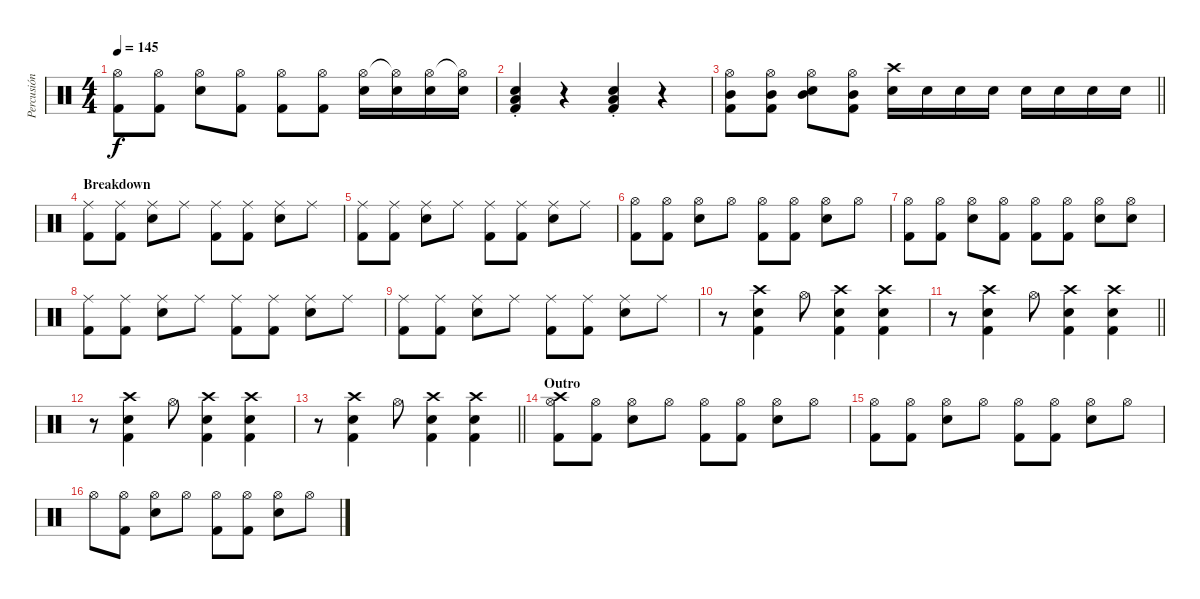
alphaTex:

\track ("Percusión" "Percusión") {instrument percussion}
\staff {score}
\articulation defaults
\ts (4 4)
\tempo 145
\clef neutral
\ks c
("Hi-Hat (open)" "Kick (hit) 2").8{dy f} ("Hi-Hat (open)" "Kick (hit) 2").8 ("Hi-Hat (open)" "Snare (hit) 2").8 ("Hi-Hat (open)" "Kick (hit) 2").8 ("Hi-Hat (open)" "Kick (hit) 2").8 ("Hi-Hat (open)" "Kick (hit) 2").8 ("Hi-Hat (open)" "Snare (hit) 2").16 ("Hi-Hat (open)"{t} "Snare (hit) 2").16 ("Hi-Hat (open)" "Snare (hit) 2").16 ("Hi-Hat (open)"{t} "Snare (hit) 2").16 |
("Low Tom (hit)"{st} "Snare (hit) 2" "Kick (hit) 2").4 r.4 ("Low Tom (hit)"{st} "Snare (hit) 2" "Kick (hit) 2").4 r.4 |
\barLineRight lightlight
("Hi-Hat (open)" "Mid Tom (hit)" "Kick (hit) 2").8 ("Hi-Hat (open)" "Mid Tom (hit)" "Kick (hit) 2").8 ("Hi-Hat (open)" "Mid Tom (hit)" "Snare (hit) 2").8 ("Hi-Hat (open)" "Mid Tom (hit)" "Kick (hit) 2").8 ("Crash high (hit)" "Snare (hit) 2").16 "Snare (hit) 2".16 "Snare (hit) 2".16 "Snare (hit) 2".16 "Snare (hit) 2".16 "Snare (hit) 2".16 "Snare (hit) 2".16 "Snare (hit) 2".16 |
\section ("" "Breakdown")
("Ride (middle)" "Kick (hit) 2").8 ("Ride (middle)" "Kick (hit) 2").8 ("Ride (middle)" "Snare (hit) 2").8 "Ride (middle)".8 ("Ride (middle)" "Kick (hit) 2").8 ("Ride (middle)" "Kick (hit) 2").8 ("Ride (middle)" "Snare (hit) 2").8 "Ride (middle)".8 |
("Ride (middle)" "Kick (hit) 2").8 ("Ride (middle)" "Kick (hit) 2").8 ("Ride (middle)" "Snare (hit) 2").8 "Ride (middle)".8 ("Ride (middle)" "Kick (hit) 2").8 ("Ride (middle)" "Kick (hit) 2").8 ("Ride (middle)" "Snare (hit) 2").8 "Ride (middle)".8 |
("Hi-Hat (open)" "Kick (hit) 2").8 ("Hi-Hat (open)" "Kick (hit) 2").8 ("Hi-Hat (open)" "Snare (hit) 2").8 "Hi-Hat (open)".8 ("Hi-Hat (open)" "Kick (hit) 2").8 ("Hi-Hat (open)" "Kick (hit) 2").8 ("Hi-Hat (open)" "Snare (hit) 2").8 "Hi-Hat (open)".8 |
("Hi-Hat (open)" "Kick (hit) 2").8 ("Hi-Hat (open)" "Kick (hit) 2").8 ("Hi-Hat (open)" "Snare (hit) 2").8 ("Hi-Hat (open)" "Kick (hit) 2").8 ("Hi-Hat (open)" "Kick (hit) 2").8 ("Hi-Hat (open)" "Kick (hit) 2").8 ("Hi-Hat (open)" "Snare (hit) 2").8 ("Hi-Hat (open)" "Snare (hit) 2").8 |
("Ride (middle)" "Kick (hit) 2").8 ("Ride (middle)" "Kick (hit) 2").8 ("Ride (middle)" "Snare (hit) 2").8 "Ride (middle)".8 ("Ride (middle)" "Kick (hit) 2").8 ("Ride (middle)" "Kick (hit) 2").8 ("Ride (middle)" "Snare (hit) 2").8 "Ride (middle)".8 |
("Ride (middle)" "Kick (hit) 2").8 ("Ride (middle)" "Kick (hit) 2").8 ("Ride (middle)" "Snare (hit) 2").8 "Ride (middle)".8 ("Ride (middle)" "Kick (hit) 2").8 ("Ride (middle)" "Kick (hit) 2").8 ("Ride (middle)" "Snare (hit) 2").8 "Ride (middle)".8 |
r.8 ("Crash high (hit)" "Snare (hit) 2" "Kick (hit) 2").4 "Hi-Hat (open)".8 ("Crash high (hit)" "Snare (hit) 2" "Kick (hit) 2").4 ("Crash high (hit)" "Snare (hit) 2" "Kick (hit) 2").4 |
\barLineRight lightlight
r.8 ("Crash high (hit)" "Snare (hit) 2" "Kick (hit) 2").4 "Hi-Hat (open)".8 ("Crash high (hit)" "Snare (hit) 2" "Kick (hit) 2").4 ("Crash high (hit)" "Snare (hit) 2" "Kick (hit) 2").4 |
r.8 ("Crash high (hit)" "Snare (hit) 2" "Kick (hit) 2").4 "Hi-Hat (open)".8 ("Crash high (hit)" "Snare (hit) 2" "Kick (hit) 2").4 ("Crash high (hit)" "Snare (hit) 2" "Kick (hit) 2").4 |
\barLineRight lightlight
r.8 ("Crash high (hit)" "Snare (hit) 2" "Kick (hit) 2").4 "Hi-Hat (open)".8 ("Crash high (hit)" "Snare (hit) 2" "Kick (hit) 2").4 ("Crash high (hit)" "Snare (hit) 2" "Kick (hit) 2").4 |
\section ("" "Outro")
("Crash high (hit)" "Hi-Hat (open)" "Kick (hit) 2").8 ("Hi-Hat (open)" "Kick (hit) 2").8 ("Hi-Hat (open)" "Snare (hit) 2").8 "Hi-Hat (open)".8 ("Hi-Hat (open)" "Kick (hit) 2").8 ("Hi-Hat (open)" "Kick (hit) 2").8 ("Hi-Hat (open)" "Snare (hit) 2").8 "Hi-Hat (open)".8 |
("Hi-Hat (open)" "Kick (hit) 2").8 ("Hi-Hat (open)" "Kick (hit) 2").8 ("Hi-Hat (open)" "Snare (hit) 2").8 "Hi-Hat (open)".8 ("Hi-Hat (open)" "Kick (hit) 2").8 ("Hi-Hat (open)" "Kick (hit) 2").8 ("Hi-Hat (open)" "Snare (hit) 2").8 "Hi-Hat (open)".8 |
"Hi-Hat (open)".8 ("Hi-Hat (open)" "Kick (hit) 2").8 ("Hi-Hat (open)" "Snare (hit) 2").8 "Hi-Hat (open)".8 ("Hi-Hat (open)" "Kick (hit) 2").8 ("Hi-Hat (open)" "Kick (hit) 2").8 ("Hi-Hat (open)" "Snare (hit) 2").8 "Hi-Hat (open)".8
